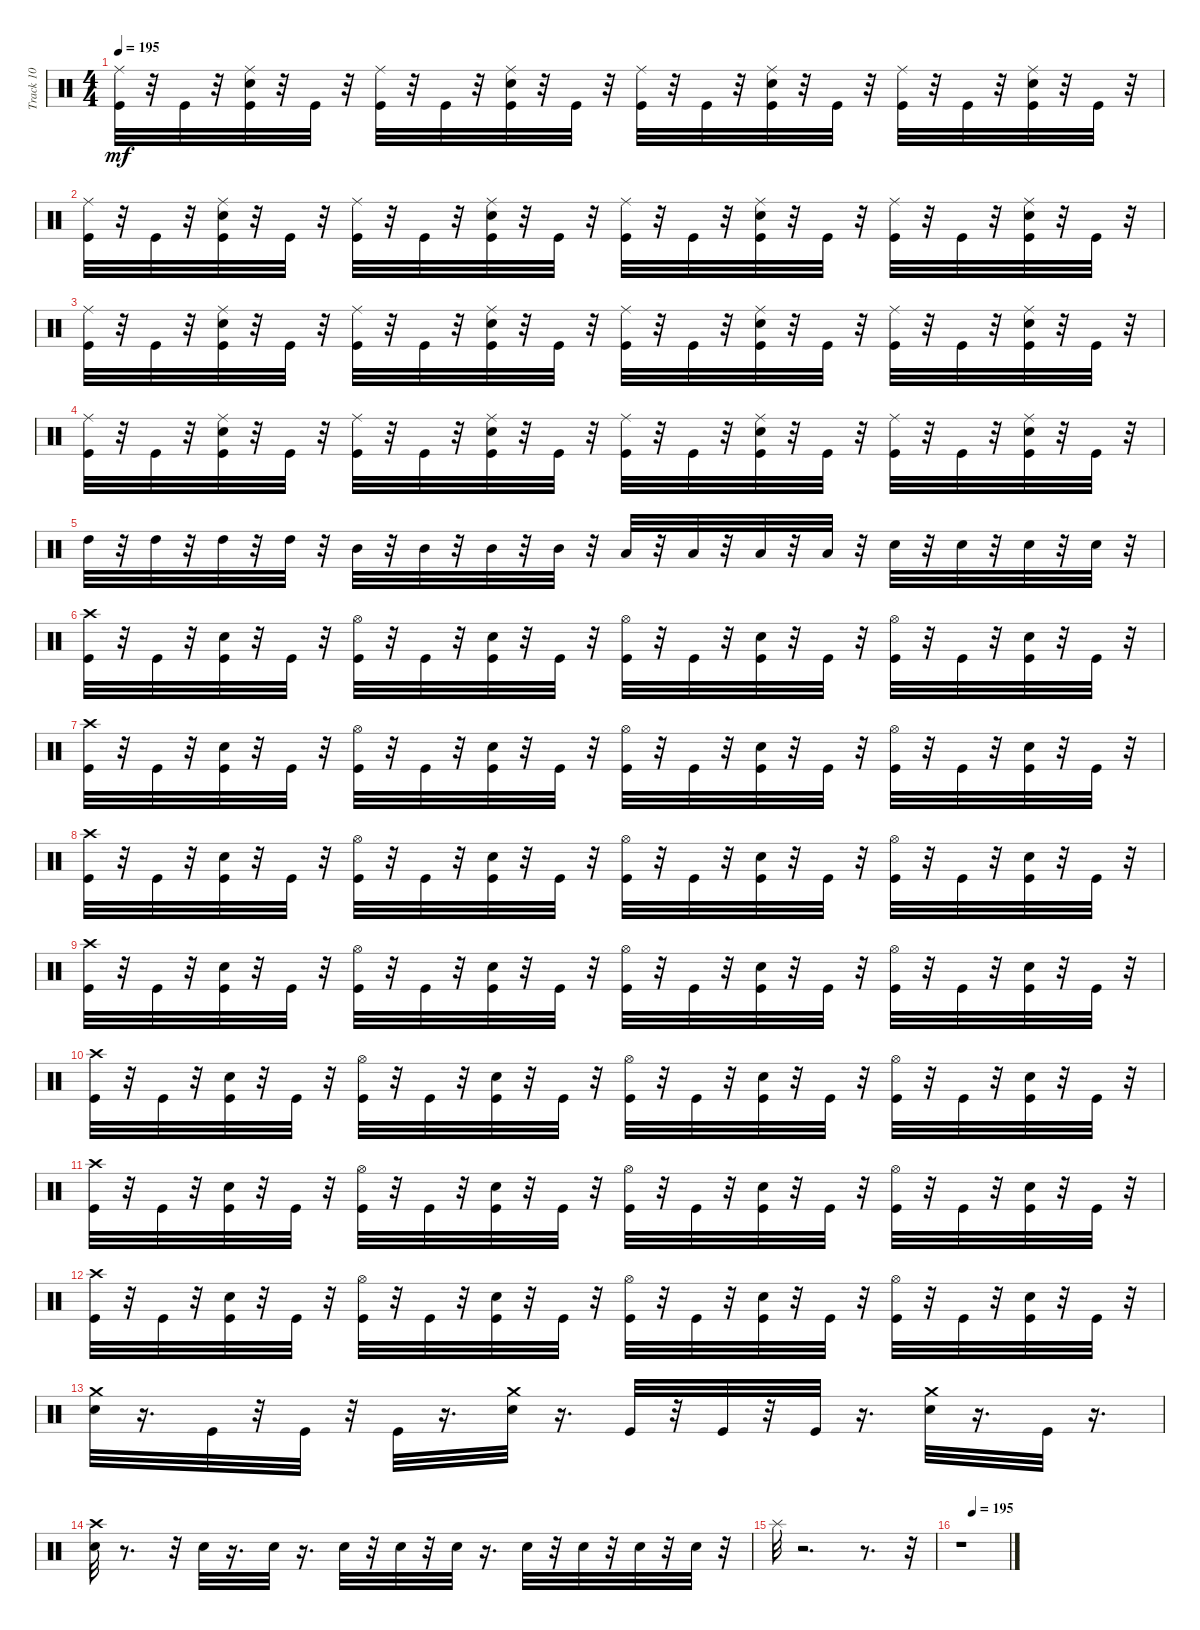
\track ("Track 10" "Track 10") {instrument percussion}
\staff {score}
\articulation defaults
\ts (4 4)
\tempo 195
\clef neutral
\ks c
("Ride (middle)" "Kick (hit)").32{dy mf} r.32 "Kick (hit)".32 r.32 ("Electric Snare (hit)" "Kick (hit)" "Ride (middle)").32 r.32 "Kick (hit)".32 r.32 ("Ride (middle)" "Kick (hit)").32 r.32 "Kick (hit)".32 r.32 ("Ride (middle)" "Electric Snare (hit)" "Kick (hit)").32 r.32 "Kick (hit)".32 r.32 ("Ride (middle)" "Kick (hit)").32 r.32 "Kick (hit)".32 r.32 ("Electric Snare (hit)" "Kick (hit)" "Ride (middle)").32 r.32 "Kick (hit)".32 r.32 ("Ride (middle)" "Kick (hit)").32 r.32 "Kick (hit)".32 r.32 ("Ride (middle)" "Electric Snare (hit)" "Kick (hit)").32 r.32 "Kick (hit)".32 r.32 |
("Ride (middle)" "Kick (hit)").32 r.32 "Kick (hit)".32 r.32 ("Electric Snare (hit)" "Kick (hit)" "Ride (middle)").32 r.32 "Kick (hit)".32 r.32 ("Ride (middle)" "Kick (hit)").32 r.32 "Kick (hit)".32 r.32 ("Ride (middle)" "Electric Snare (hit)" "Kick (hit)").32 r.32 "Kick (hit)".32 r.32 ("Ride (middle)" "Kick (hit)").32 r.32 "Kick (hit)".32 r.32 ("Electric Snare (hit)" "Kick (hit)" "Ride (middle)").32 r.32 "Kick (hit)".32 r.32 ("Ride (middle)" "Kick (hit)").32 r.32 "Kick (hit)".32 r.32 ("Ride (middle)" "Electric Snare (hit)" "Kick (hit)").32 r.32 "Kick (hit)".32 r.32 |
("Ride (middle)" "Kick (hit)").32 r.32 "Kick (hit)".32 r.32 ("Electric Snare (hit)" "Kick (hit)" "Ride (middle)").32 r.32 "Kick (hit)".32 r.32 ("Ride (middle)" "Kick (hit)").32 r.32 "Kick (hit)".32 r.32 ("Ride (middle)" "Electric Snare (hit)" "Kick (hit)").32 r.32 "Kick (hit)".32 r.32 ("Ride (middle)" "Kick (hit)").32 r.32 "Kick (hit)".32 r.32 ("Electric Snare (hit)" "Kick (hit)" "Ride (middle)").32 r.32 "Kick (hit)".32 r.32 ("Ride (middle)" "Kick (hit)").32 r.32 "Kick (hit)".32 r.32 ("Ride (middle)" "Electric Snare (hit)" "Kick (hit)").32 r.32 "Kick (hit)".32 r.32 |
("Ride (middle)" "Kick (hit)").32 r.32 "Kick (hit)".32 r.32 ("Electric Snare (hit)" "Kick (hit)" "Ride (middle)").32 r.32 "Kick (hit)".32 r.32 ("Ride (middle)" "Kick (hit)").32 r.32 "Kick (hit)".32 r.32 ("Ride (middle)" "Electric Snare (hit)" "Kick (hit)").32 r.32 "Kick (hit)".32 r.32 ("Ride (middle)" "Kick (hit)").32 r.32 "Kick (hit)".32 r.32 ("Electric Snare (hit)" "Kick (hit)" "Ride (middle)").32 r.32 "Kick (hit)".32 r.32 ("Ride (middle)" "Kick (hit)").32 r.32 "Kick (hit)".32 r.32 ("Ride (middle)" "Electric Snare (hit)" "Kick (hit)").32 r.32 "Kick (hit)".32 r.32 |
"High Tom (hit)".32 r.32 "High Tom (hit)".32 r.32 "High Tom (hit)".32 r.32 "High Tom (hit)".32 r.32 "Mid Tom (hit)".32 r.32 "Mid Tom (hit)".32 r.32 "Mid Tom (hit)".32 r.32 "Mid Tom (hit)".32 r.32 "Low Tom (hit)".32 r.32 "Low Tom (hit)".32 r.32 "Low Tom (hit)".32 r.32 "Low Tom (hit)".32 r.32 "Electric Snare (hit)".32 r.32 "Electric Snare (hit)".32 r.32 "Electric Snare (hit)".32 r.32 "Electric Snare (hit)".32 r.32 |
("Crash high (hit)" "Kick (hit)").32 r.32 "Kick (hit)".32 r.32 ("Electric Snare (hit)" "Kick (hit)").32 r.32 "Kick (hit)".32 r.32 ("Hi-Hat (open)" "Kick (hit)").32 r.32 "Kick (hit)".32 r.32 ("Electric Snare (hit)" "Kick (hit)").32 r.32 "Kick (hit)".32 r.32 ("Hi-Hat (open)" "Kick (hit)").32 r.32 "Kick (hit)".32 r.32 ("Electric Snare (hit)" "Kick (hit)").32 r.32 "Kick (hit)".32 r.32 ("Hi-Hat (open)" "Kick (hit)").32 r.32 "Kick (hit)".32 r.32 ("Electric Snare (hit)" "Kick (hit)").32 r.32 "Kick (hit)".32 r.32 |
("Crash high (hit)" "Kick (hit)").32 r.32 "Kick (hit)".32 r.32 ("Electric Snare (hit)" "Kick (hit)").32 r.32 "Kick (hit)".32 r.32 ("Hi-Hat (open)" "Kick (hit)").32 r.32 "Kick (hit)".32 r.32 ("Electric Snare (hit)" "Kick (hit)").32 r.32 "Kick (hit)".32 r.32 ("Hi-Hat (open)" "Kick (hit)").32 r.32 "Kick (hit)".32 r.32 ("Electric Snare (hit)" "Kick (hit)").32 r.32 "Kick (hit)".32 r.32 ("Hi-Hat (open)" "Kick (hit)").32 r.32 "Kick (hit)".32 r.32 ("Electric Snare (hit)" "Kick (hit)").32 r.32 "Kick (hit)".32 r.32 |
("Crash high (hit)" "Kick (hit)").32 r.32 "Kick (hit)".32 r.32 ("Electric Snare (hit)" "Kick (hit)").32 r.32 "Kick (hit)".32 r.32 ("Hi-Hat (open)" "Kick (hit)").32 r.32 "Kick (hit)".32 r.32 ("Electric Snare (hit)" "Kick (hit)").32 r.32 "Kick (hit)".32 r.32 ("Hi-Hat (open)" "Kick (hit)").32 r.32 "Kick (hit)".32 r.32 ("Electric Snare (hit)" "Kick (hit)").32 r.32 "Kick (hit)".32 r.32 ("Hi-Hat (open)" "Kick (hit)").32 r.32 "Kick (hit)".32 r.32 ("Electric Snare (hit)" "Kick (hit)").32 r.32 "Kick (hit)".32 r.32 |
("Crash high (hit)" "Kick (hit)").32 r.32 "Kick (hit)".32 r.32 ("Electric Snare (hit)" "Kick (hit)").32 r.32 "Kick (hit)".32 r.32 ("Hi-Hat (open)" "Kick (hit)").32 r.32 "Kick (hit)".32 r.32 ("Electric Snare (hit)" "Kick (hit)").32 r.32 "Kick (hit)".32 r.32 ("Hi-Hat (open)" "Kick (hit)").32 r.32 "Kick (hit)".32 r.32 ("Electric Snare (hit)" "Kick (hit)").32 r.32 "Kick (hit)".32 r.32 ("Hi-Hat (open)" "Kick (hit)").32 r.32 "Kick (hit)".32 r.32 ("Electric Snare (hit)" "Kick (hit)").32 r.32 "Kick (hit)".32 r.32 |
("Crash high (hit)" "Kick (hit)").32 r.32 "Kick (hit)".32 r.32 ("Electric Snare (hit)" "Kick (hit)").32 r.32 "Kick (hit)".32 r.32 ("Hi-Hat (open)" "Kick (hit)").32 r.32 "Kick (hit)".32 r.32 ("Electric Snare (hit)" "Kick (hit)").32 r.32 "Kick (hit)".32 r.32 ("Hi-Hat (open)" "Kick (hit)").32 r.32 "Kick (hit)".32 r.32 ("Electric Snare (hit)" "Kick (hit)").32 r.32 "Kick (hit)".32 r.32 ("Hi-Hat (open)" "Kick (hit)").32 r.32 "Kick (hit)".32 r.32 ("Electric Snare (hit)" "Kick (hit)").32 r.32 "Kick (hit)".32 r.32 |
("Crash high (hit)" "Kick (hit)").32 r.32 "Kick (hit)".32 r.32 ("Electric Snare (hit)" "Kick (hit)").32 r.32 "Kick (hit)".32 r.32 ("Hi-Hat (open)" "Kick (hit)").32 r.32 "Kick (hit)".32 r.32 ("Electric Snare (hit)" "Kick (hit)").32 r.32 "Kick (hit)".32 r.32 ("Hi-Hat (open)" "Kick (hit)").32 r.32 "Kick (hit)".32 r.32 ("Electric Snare (hit)" "Kick (hit)").32 r.32 "Kick (hit)".32 r.32 ("Hi-Hat (open)" "Kick (hit)").32 r.32 "Kick (hit)".32 r.32 ("Electric Snare (hit)" "Kick (hit)").32 r.32 "Kick (hit)".32 r.32 |
("Crash high (hit)" "Kick (hit)").32 r.32 "Kick (hit)".32 r.32 ("Electric Snare (hit)" "Kick (hit)").32 r.32 "Kick (hit)".32 r.32 ("Hi-Hat (open)" "Kick (hit)").32 r.32 "Kick (hit)".32 r.32 ("Electric Snare (hit)" "Kick (hit)").32 r.32 "Kick (hit)".32 r.32 ("Hi-Hat (open)" "Kick (hit)").32 r.32 "Kick (hit)".32 r.32 ("Electric Snare (hit)" "Kick (hit)").32 r.32 "Kick (hit)".32 r.32 ("Hi-Hat (open)" "Kick (hit)").32 r.32 "Kick (hit)".32 r.32 ("Electric Snare (hit)" "Kick (hit)").32 r.32 "Kick (hit)".32 r.32 |
("Crash medium (hit)" "Electric Snare (hit)").32 r.16{d} "Kick (hit)".32 r.32 "Kick (hit)".32 r.32 "Kick (hit)".32 r.16{d} ("Crash medium (hit)" "Electric Snare (hit)").32 r.16{d} "Kick (hit)".32 r.32 "Kick (hit)".32 r.32 "Kick (hit)".32 r.16{d} ("Electric Snare (hit)" "Crash medium (hit)").32 r.16{d} "Kick (hit)".32 r.16{d} |
("Crash high (hit)" "Electric Snare (hit)").32 r.8{d} r.32 "Electric Snare (hit)".32 r.16{d} "Electric Snare (hit)".32 r.16{d} "Electric Snare (hit)".32 r.32 "Electric Snare (hit)".32 r.32 "Electric Snare (hit)".32 r.16{d} "Electric Snare (hit)".32 r.32 "Electric Snare (hit)".32 r.32 "Electric Snare (hit)".32 r.32 "Electric Snare (hit)".32 r.32 |
"Splash (hit)".32 r.2{d} r.8{d} r.32 |
\tempo (195 0.25)
r.1
